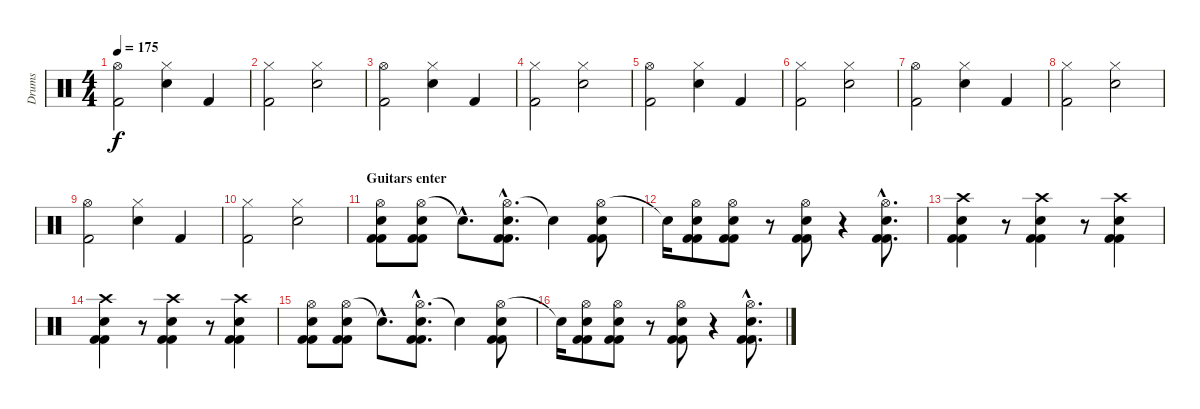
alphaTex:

\track ("Drums" "Drums") {instrument percussion}
\staff {score}
\articulation defaults
\ts (4 4)
\tempo 175
\clef neutral
\ks c
("Hi-Hat (open)" "Kick (hit) 2").2{dy f} ("Hi-Hat (closed)" "Snare (hit) 2").4 "Kick (hit) 2".4 |
("Hi-Hat (closed)" "Kick (hit) 2").2 ("Hi-Hat (closed)" "Snare (hit) 2").2 |
("Hi-Hat (open)" "Kick (hit) 2").2 ("Hi-Hat (closed)" "Snare (hit) 2").4 "Kick (hit) 2".4 |
("Hi-Hat (closed)" "Kick (hit) 2").2 ("Hi-Hat (closed)" "Snare (hit) 2").2 |
("Hi-Hat (open)" "Kick (hit) 2").2 ("Hi-Hat (closed)" "Snare (hit) 2").4 "Kick (hit) 2".4 |
("Hi-Hat (closed)" "Kick (hit) 2").2 ("Hi-Hat (closed)" "Snare (hit) 2").2 |
("Hi-Hat (open)" "Kick (hit) 2").2 ("Hi-Hat (closed)" "Snare (hit) 2").4 "Kick (hit) 2".4 |
("Hi-Hat (closed)" "Kick (hit) 2").2 ("Hi-Hat (closed)" "Snare (hit) 2").2 |
("Hi-Hat (open)" "Kick (hit) 2").2 ("Hi-Hat (closed)" "Snare (hit) 2").4 "Kick (hit) 2".4 |
("Hi-Hat (closed)" "Kick (hit) 2").2 ("Hi-Hat (closed)" "Snare (hit) 2").2 |
\section ("" "Guitars enter")
("Hi-Hat (open)" "Snare (hit) 2" "Kick (hit) 2" "Kick (hit) 2").8 ("Hi-Hat (open)" "Snare (hit) 2" "Kick (hit) 2" "Kick (hit) 2").8 "Snare (hit)"{hac t}.8{d} ("Hi-Hat (open)"{hac} "Snare (hit) 2"{hac} "Kick (hit) 2"{hac} "Kick (hit) 2"{hac}).8{d} "Snare (hit)"{t}.4 ("Hi-Hat (open)" "Electric Snare (hit)" "Kick (hit) 2" "Kick (hit) 2").8 |
"Snare (hit)"{t}.16 ("Hi-Hat (open)" "Snare (hit) 2" "Kick (hit) 2" "Kick (hit) 2").8 ("Hi-Hat (open)" "Snare (hit) 2" "Kick (hit) 2" "Kick (hit) 2").8 r.8 ("Hi-Hat (open)" "Snare (hit) 2" "Kick (hit) 2" "Kick (hit) 2").8 r.4 ("Hi-Hat (open)"{hac} "Snare (hit) 2"{hac} "Kick (hit) 2"{hac} "Kick (hit) 2"{hac}).8{d} |
("Crash high (hit)" "Snare (hit) 2" "Kick (hit) 2" "Kick (hit) 2").4 r.8 ("Crash high (hit)" "Snare (hit) 2" "Kick (hit) 2" "Kick (hit) 2").4 r.8 ("Crash high (hit)" "Snare (hit) 2" "Kick (hit) 2" "Kick (hit) 2").4 |
("Crash high (hit)" "Snare (hit) 2" "Kick (hit) 2" "Kick (hit) 2").4 r.8 ("Crash high (hit)" "Snare (hit) 2" "Kick (hit) 2" "Kick (hit) 2").4 r.8 ("Crash high (hit)" "Snare (hit) 2" "Kick (hit) 2" "Kick (hit) 2").4 |
("Hi-Hat (open)" "Snare (hit) 2" "Kick (hit) 2" "Kick (hit) 2").8 ("Hi-Hat (open)" "Snare (hit) 2" "Kick (hit) 2" "Kick (hit) 2").8 "Snare (hit)"{hac t}.8{d} ("Hi-Hat (open)"{hac} "Snare (hit) 2"{hac} "Kick (hit) 2"{hac} "Kick (hit) 2"{hac}).8{d} "Snare (hit)"{t}.4 ("Hi-Hat (open)" "Electric Snare (hit)" "Kick (hit) 2" "Kick (hit) 2").8 |
"Snare (hit)"{t}.16 ("Hi-Hat (open)" "Snare (hit) 2" "Kick (hit) 2" "Kick (hit) 2").8 ("Hi-Hat (open)" "Snare (hit) 2" "Kick (hit) 2" "Kick (hit) 2").8 r.8 ("Hi-Hat (open)" "Snare (hit) 2" "Kick (hit) 2" "Kick (hit) 2").8 r.4 ("Hi-Hat (open)"{hac} "Snare (hit) 2"{hac} "Kick (hit) 2"{hac} "Kick (hit) 2"{hac}).8{d}
